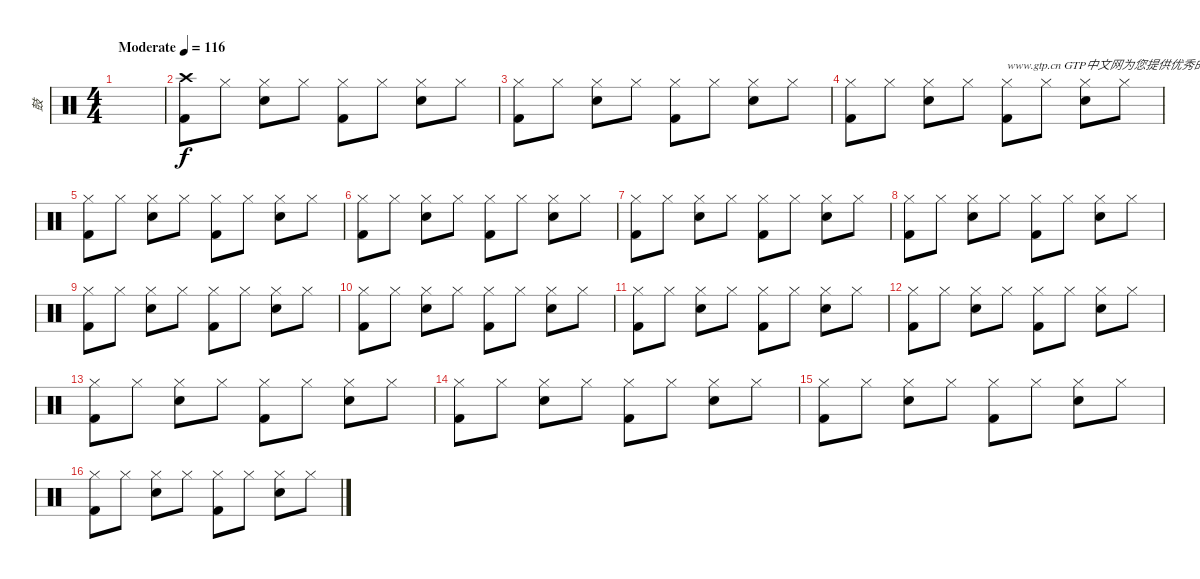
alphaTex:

\track ("鼓" "鼓") {instrument percussion}
\staff {score}
\articulation defaults
\ts (4 4)
\tempo (116 "Moderate")
\clef neutral
\ks c
|
("Kick (hit) 2" "Crash high (hit)").8 "Hi-Hat (closed)".8 ("Snare (hit) 2" "Hi-Hat (closed)").8 "Hi-Hat (closed)".8 ("Kick (hit) 2" "Hi-Hat (closed)").8 "Hi-Hat (closed)".8 ("Snare (hit) 2" "Hi-Hat (closed)").8 "Hi-Hat (closed)".8 |
("Kick (hit) 2" "Hi-Hat (closed)").8 "Hi-Hat (closed)".8 ("Snare (hit) 2" "Hi-Hat (closed)").8 "Hi-Hat (closed)".8 ("Kick (hit) 2" "Hi-Hat (closed)").8 "Hi-Hat (closed)".8 ("Snare (hit) 2" "Hi-Hat (closed)").8 "Hi-Hat (closed)".8 |
("Kick (hit) 2" "Hi-Hat (closed)").8 "Hi-Hat (closed)".8 ("Snare (hit) 2" "Hi-Hat (closed)").8 "Hi-Hat (closed)".8 ("Kick (hit) 2" "Hi-Hat (closed)").8{txt "www.gtp.cn GTP中文网为您提供优秀的谱子"} "Hi-Hat (closed)".8 ("Snare (hit) 2" "Hi-Hat (closed)").8 "Hi-Hat (closed)".8 |
("Kick (hit) 2" "Hi-Hat (closed)").8 "Hi-Hat (closed)".8 ("Snare (hit) 2" "Hi-Hat (closed)").8 "Hi-Hat (closed)".8 ("Kick (hit) 2" "Hi-Hat (closed)").8 "Hi-Hat (closed)".8 ("Snare (hit) 2" "Hi-Hat (closed)").8 "Hi-Hat (closed)".8 |
("Kick (hit) 2" "Hi-Hat (closed)").8 "Hi-Hat (closed)".8 ("Snare (hit) 2" "Hi-Hat (closed)").8 "Hi-Hat (closed)".8 ("Kick (hit) 2" "Hi-Hat (closed)").8 "Hi-Hat (closed)".8 ("Snare (hit) 2" "Hi-Hat (closed)").8 "Hi-Hat (closed)".8 |
("Kick (hit) 2" "Hi-Hat (closed)").8 "Hi-Hat (closed)".8 ("Snare (hit) 2" "Hi-Hat (closed)").8 "Hi-Hat (closed)".8 ("Kick (hit) 2" "Hi-Hat (closed)").8 "Hi-Hat (closed)".8 ("Snare (hit) 2" "Hi-Hat (closed)").8 "Hi-Hat (closed)".8 |
("Kick (hit) 2" "Hi-Hat (closed)").8 "Hi-Hat (closed)".8 ("Snare (hit) 2" "Hi-Hat (closed)").8 "Hi-Hat (closed)".8 ("Kick (hit) 2" "Hi-Hat (closed)").8 "Hi-Hat (closed)".8 ("Snare (hit) 2" "Hi-Hat (closed)").8 "Hi-Hat (closed)".8 |
("Kick (hit) 2" "Hi-Hat (closed)").8 "Hi-Hat (closed)".8 ("Snare (hit) 2" "Hi-Hat (closed)").8 "Hi-Hat (closed)".8 ("Kick (hit) 2" "Hi-Hat (closed)").8 "Hi-Hat (closed)".8 ("Snare (hit) 2" "Hi-Hat (closed)").8 "Hi-Hat (closed)".8 |
("Kick (hit) 2" "Hi-Hat (closed)").8 "Hi-Hat (closed)".8 ("Snare (hit) 2" "Hi-Hat (closed)").8 "Hi-Hat (closed)".8 ("Kick (hit) 2" "Hi-Hat (closed)").8 "Hi-Hat (closed)".8 ("Snare (hit) 2" "Hi-Hat (closed)").8 "Hi-Hat (closed)".8 |
("Kick (hit) 2" "Hi-Hat (closed)").8 "Hi-Hat (closed)".8 ("Snare (hit) 2" "Hi-Hat (closed)").8 "Hi-Hat (closed)".8 ("Kick (hit) 2" "Hi-Hat (closed)").8 "Hi-Hat (closed)".8 ("Snare (hit) 2" "Hi-Hat (closed)").8 "Hi-Hat (closed)".8 |
("Kick (hit) 2" "Hi-Hat (closed)").8 "Hi-Hat (closed)".8 ("Snare (hit) 2" "Hi-Hat (closed)").8 "Hi-Hat (closed)".8 ("Kick (hit) 2" "Hi-Hat (closed)").8 "Hi-Hat (closed)".8 ("Snare (hit) 2" "Hi-Hat (closed)").8 "Hi-Hat (closed)".8 |
("Kick (hit) 2" "Hi-Hat (closed)").8 "Hi-Hat (closed)".8 ("Snare (hit) 2" "Hi-Hat (closed)").8 "Hi-Hat (closed)".8 ("Kick (hit) 2" "Hi-Hat (closed)").8 "Hi-Hat (closed)".8 ("Snare (hit) 2" "Hi-Hat (closed)").8 "Hi-Hat (closed)".8 |
("Kick (hit) 2" "Hi-Hat (closed)").8 "Hi-Hat (closed)".8 ("Snare (hit) 2" "Hi-Hat (closed)").8 "Hi-Hat (closed)".8 ("Kick (hit) 2" "Hi-Hat (closed)").8 "Hi-Hat (closed)".8 ("Snare (hit) 2" "Hi-Hat (closed)").8 "Hi-Hat (closed)".8 |
("Kick (hit) 2" "Hi-Hat (closed)").8 "Hi-Hat (closed)".8 ("Snare (hit) 2" "Hi-Hat (closed)").8 "Hi-Hat (closed)".8 ("Kick (hit) 2" "Hi-Hat (closed)").8 "Hi-Hat (closed)".8 ("Snare (hit) 2" "Hi-Hat (closed)").8 "Hi-Hat (closed)".8 |
("Kick (hit) 2" "Hi-Hat (closed)").8 "Hi-Hat (closed)".8 ("Snare (hit) 2" "Hi-Hat (closed)").8 "Hi-Hat (closed)".8 ("Kick (hit) 2" "Hi-Hat (closed)").8 "Hi-Hat (closed)".8 ("Snare (hit) 2" "Hi-Hat (closed)").8 "Hi-Hat (closed)".8
